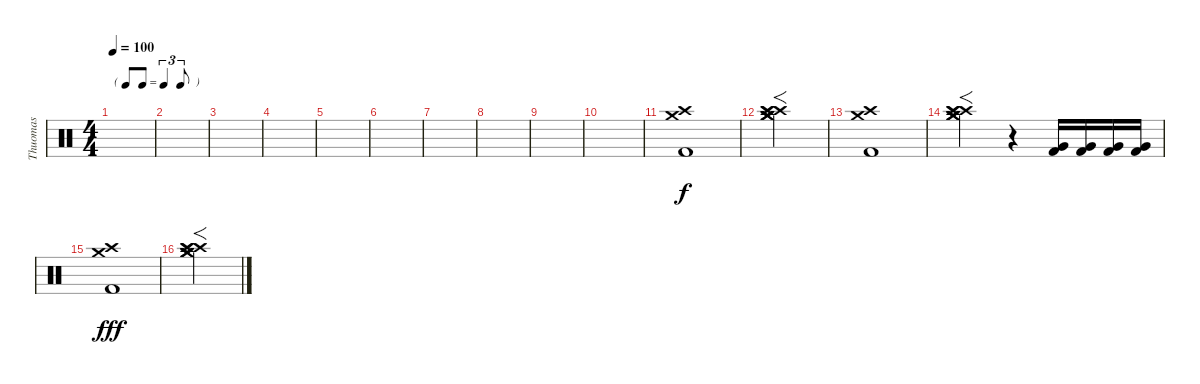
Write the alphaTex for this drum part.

\track ("Thuomas" "Thuomas") {instrument percussion}
\staff {score}
\articulation defaults
\ts (4 4)
\tf triplet8th
\tempo 100
\clef neutral
\ks c
|
|
|
|
|
|
|
|
|
|
("Crash medium (hit)" "Crash high (hit)" "Kick (hit) 2").1 |
("Crash medium (hit)" "Crash medium (hit)" "Crash medium (hit)" "Crash high (hit)" "Crash high (hit)" "Crash high (hit)").2{f} |
("Crash medium (hit)" "Crash high (hit)" "Kick (hit) 2").1 |
("Crash medium (hit)" "Crash medium (hit)" "Crash medium (hit)" "Crash high (hit)" "Crash high (hit)" "Crash high (hit)").2{f} r.4 ("Very Low Tom (hit)" "Kick (hit) 2").16{dy f} ("Very Low Tom (hit)" "Kick (hit) 2").16 ("Very Low Tom (hit)" "Kick (hit) 2").16 ("Very Low Tom (hit)" "Kick (hit) 2").16 |
("Crash medium (hit)" "Crash high (hit)" "Kick (hit) 2").1{dy fff} |
("Crash medium (hit)" "Crash medium (hit)" "Crash medium (hit)" "Crash high (hit)" "Crash high (hit)" "Crash high (hit)").2{f}
